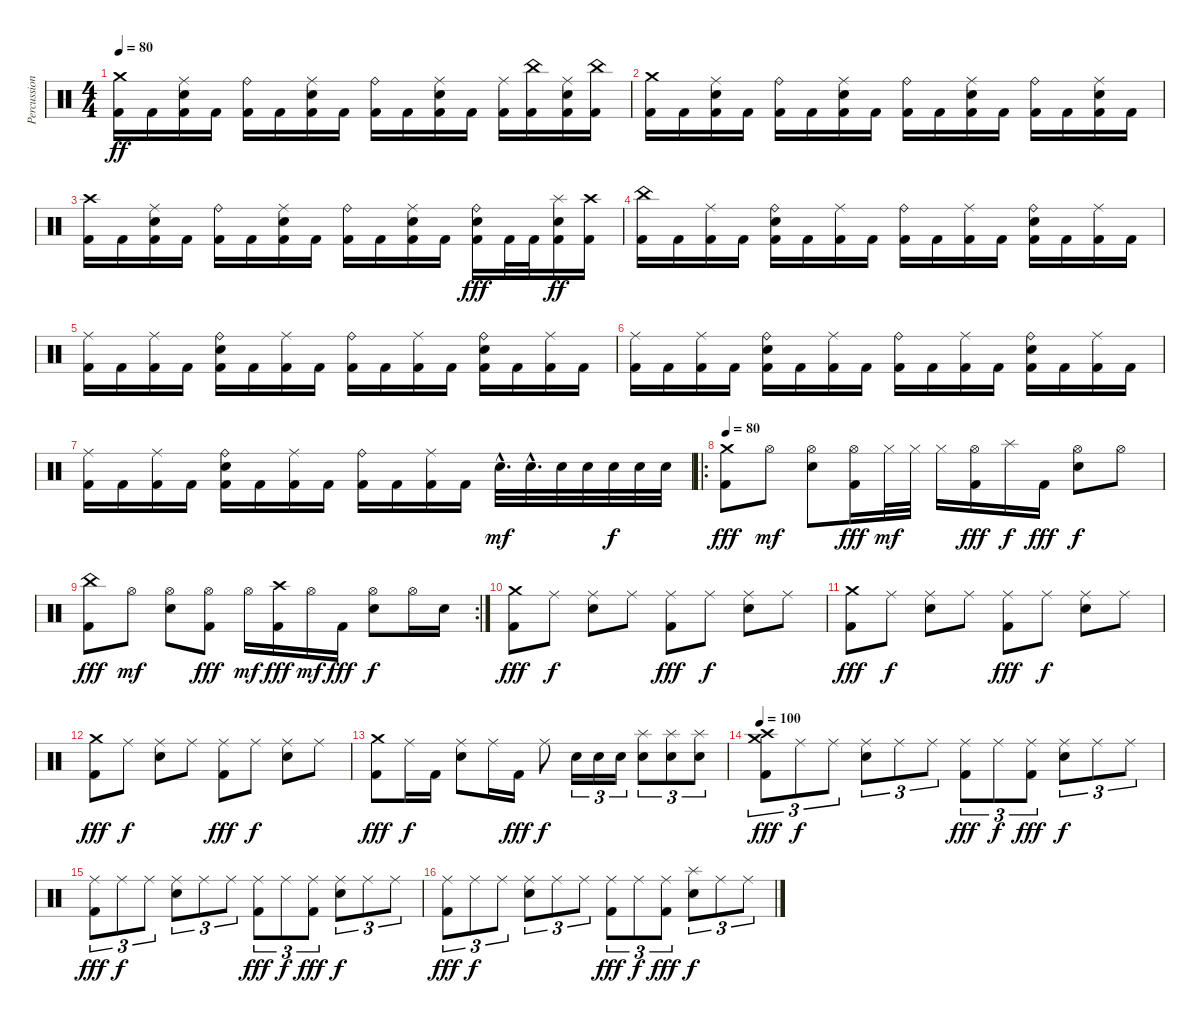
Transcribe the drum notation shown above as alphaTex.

\track ("Percussion" "Percussion") {instrument percussion}
\staff {score}
\articulation defaults
\ts (4 4)
\tempo 80
\clef neutral
\ks c
("Crash medium (hit)" "Kick (hit) 2").16{dy ff} "Kick (hit) 2".16 ("Ride (middle)" "Electric Snare (hit)" "Kick (hit) 2").16 "Kick (hit) 2".16 ("Ride (bell)" "Kick (hit) 2").16 "Kick (hit) 2".16 ("Ride (middle)" "Electric Snare (hit)" "Kick (hit) 2").16 "Kick (hit) 2".16 ("Ride (bell)" "Kick (hit) 2").16 "Kick (hit) 2".16 ("Ride (middle)" "Electric Snare (hit)" "Kick (hit) 2").16 "Kick (hit) 2".16 ("Ride (middle)" "Kick (hit) 2").16 ("China (hit)" "Kick (hit) 2").16 ("Ride (middle)" "Electric Snare (hit)" "Kick (hit) 2").16 ("China (hit)" "Kick (hit) 2").16 |
("Crash medium (hit)" "Kick (hit) 2").16 "Kick (hit) 2".16 ("Ride (middle)" "Electric Snare (hit)" "Kick (hit) 2").16 "Kick (hit) 2".16 ("Ride (bell)" "Kick (hit) 2").16 "Kick (hit) 2".16 ("Ride (middle)" "Electric Snare (hit)" "Kick (hit) 2").16 "Kick (hit) 2".16 ("Ride (bell)" "Kick (hit) 2").16 "Kick (hit) 2".16 ("Ride (middle)" "Electric Snare (hit)" "Kick (hit) 2").16 "Kick (hit) 2".16 ("Ride (bell)" "Kick (hit) 2").16 "Kick (hit) 2".16 ("Ride (middle)" "Electric Snare (hit)" "Kick (hit) 2").16 "Kick (hit) 2".16 |
("Crash high (hit)" "Kick (hit) 2").16 "Kick (hit) 2".16 ("Ride (middle)" "Electric Snare (hit)" "Kick (hit) 2").16 "Kick (hit) 2".16 ("Ride (bell)" "Kick (hit) 2").16 "Kick (hit) 2".16 ("Ride (middle)" "Electric Snare (hit)" "Kick (hit) 2").16 "Kick (hit) 2".16 ("Ride (bell)" "Kick (hit) 2").16 "Kick (hit) 2".16 ("Ride (middle)" "Electric Snare (hit)" "Kick (hit) 2").16 "Kick (hit) 2".16 ("Ride (bell)" "Electric Snare (hit)" "Kick (hit) 2").16{dy fff} "Kick (hit) 2".32 "Kick (hit) 2".32 ("Splash (hit)" "Electric Snare (hit)" "Kick (hit) 2").16{dy ff} ("Crash high (hit)" "Kick (hit) 2").16 |
("China (hit)" "Kick (hit) 2").16 "Kick (hit) 2".16 ("Ride (middle)" "Kick (hit) 2").16 "Kick (hit) 2".16 ("Ride (bell)" "Electric Snare (hit)" "Kick (hit) 2").16 "Kick (hit) 2".16 ("Ride (middle)" "Kick (hit) 2").16 "Kick (hit) 2".16 ("Ride (bell)" "Kick (hit) 2").16 "Kick (hit) 2".16 ("Ride (middle)" "Kick (hit) 2").16 "Kick (hit) 2".16 ("Ride (bell)" "Electric Snare (hit)" "Kick (hit) 2").16 "Kick (hit) 2".16 ("Ride (middle)" "Kick (hit) 2").16 "Kick (hit) 2".16 |
("Ride (middle)" "Kick (hit) 2").16 "Kick (hit) 2".16 ("Ride (middle)" "Kick (hit) 2").16 "Kick (hit) 2".16 ("Ride (bell)" "Electric Snare (hit)" "Kick (hit) 2").16 "Kick (hit) 2".16 ("Ride (middle)" "Kick (hit) 2").16 "Kick (hit) 2".16 ("Ride (bell)" "Kick (hit) 2").16 "Kick (hit) 2".16 ("Ride (middle)" "Kick (hit) 2").16 "Kick (hit) 2".16 ("Ride (bell)" "Electric Snare (hit)" "Kick (hit) 2").16 "Kick (hit) 2".16 ("Ride (middle)" "Kick (hit) 2").16 "Kick (hit) 2".16 |
("Ride (middle)" "Kick (hit) 2").16 "Kick (hit) 2".16 ("Ride (middle)" "Kick (hit) 2").16 "Kick (hit) 2".16 ("Ride (bell)" "Electric Snare (hit)" "Kick (hit) 2").16 "Kick (hit) 2".16 ("Ride (middle)" "Kick (hit) 2").16 "Kick (hit) 2".16 ("Ride (bell)" "Kick (hit) 2").16 "Kick (hit) 2".16 ("Ride (middle)" "Kick (hit) 2").16 "Kick (hit) 2".16 ("Ride (bell)" "Electric Snare (hit)" "Kick (hit) 2").16 "Kick (hit) 2".16 ("Ride (middle)" "Kick (hit) 2").16 "Kick (hit) 2".16 |
("Ride (middle)" "Kick (hit) 2").16 "Kick (hit) 2".16 ("Ride (middle)" "Kick (hit) 2").16 "Kick (hit) 2".16 ("Ride (bell)" "Electric Snare (hit)" "Kick (hit) 2").16 "Kick (hit) 2".16 ("Ride (middle)" "Kick (hit) 2").16 "Kick (hit) 2".16 ("Ride (bell)" "Kick (hit) 2").16 "Kick (hit) 2".16 ("Ride (middle)" "Kick (hit) 2").16 "Kick (hit) 2".16 "Electric Snare (hit)"{hac}.32{d dy mf} "Electric Snare (hit)"{hac}.32{d} "Electric Snare (hit)".32 "Electric Snare (hit)".32 "Electric Snare (hit)".32{dy f} "Electric Snare (hit)".32 "Electric Snare (hit)".32 |
\ro
\tempo 80
("Crash medium (hit)" "Kick (hit) 2").8{dy fff} "Hi-Hat (open)".8{dy mf} ("Hi-Hat (open)" "Electric Snare (hit)").8 ("Hi-Hat (open)" "Kick (hit) 2").16{dy fff} "Hi-Hat (closed)".32{dy mf} "Hi-Hat (closed)".32 "Hi-Hat (closed)".16 ("Hi-Hat (open)" "Kick (hit) 2").16{dy fff} "Splash (hit)".16{dy f} "Kick (hit) 2".16{dy fff} ("Hi-Hat (open)" "Electric Snare (hit)").8{dy f} "Hi-Hat (open)".8 |
\rc 2
("China (hit)" "Kick (hit) 2").8{dy fff} "Hi-Hat (open)".8{dy mf} ("Hi-Hat (open)" "Electric Snare (hit)").8 ("Hi-Hat (open)" "Kick (hit) 2").8{dy fff} "Hi-Hat (open)".16{dy mf} ("Crash high (hit)" "Kick (hit) 2").16{dy fff} "Hi-Hat (open)".16{dy mf} "Kick (hit) 2".16{dy fff} ("Hi-Hat (open)" "Electric Snare (hit)").8{dy f} "Hi-Hat (open)".16 "Electric Snare (hit)".16 |
("Crash medium (hit)" "Kick (hit) 2").8{dy fff} "Ride (middle)".8{dy f} ("Ride (middle)" "Electric Snare (hit)").8 "Ride (middle)".8 ("Ride (middle)" "Kick (hit) 2").8{dy fff} "Ride (middle)".8{dy f} ("Ride (middle)" "Electric Snare (hit)").8 "Ride (middle)".8 |
("Crash medium (hit)" "Kick (hit) 2").8{dy fff} "Ride (middle)".8{dy f} ("Ride (middle)" "Electric Snare (hit)").8 "Ride (middle)".8 ("Ride (middle)" "Kick (hit) 2").8{dy fff} "Ride (middle)".8{dy f} ("Ride (middle)" "Electric Snare (hit)").8 "Ride (middle)".8 |
("Crash medium (hit)" "Kick (hit) 2").8{dy fff} "Ride (middle)".8{dy f} ("Ride (middle)" "Electric Snare (hit)").8 "Ride (middle)".8 ("Ride (middle)" "Kick (hit) 2").8{dy fff} "Ride (middle)".8{dy f} ("Ride (middle)" "Electric Snare (hit)").8 "Ride (middle)".8 |
("Crash medium (hit)" "Kick (hit) 2").8{dy fff} "Ride (middle)".16{dy f} "Kick (hit) 2".16 ("Ride (middle)" "Electric Snare (hit)").8 "Ride (middle)".16 "Kick (hit) 2".16{dy fff} "Ride (middle)".8{dy f} "Electric Snare (hit)".16{tu (3 2)} "Electric Snare (hit)".16{tu (3 2)} "Electric Snare (hit)".16{tu (3 2)} ("Splash (hit)" "Electric Snare (hit)").8{tu (3 2)} ("Splash (hit)" "Electric Snare (hit)").8{tu (3 2)} ("Splash (hit)" "Electric Snare (hit)").8{tu (3 2)} |
\tempo 100
("Crash medium (hit)" "Crash high (hit)" "Kick (hit) 2").8{tu (3 2) dy fff} "Ride (middle)".8{tu (3 2) dy f} "Ride (middle)".8{tu (3 2)} ("Ride (middle)" "Electric Snare (hit)").8{tu (3 2)} "Ride (middle)".8{tu (3 2)} "Ride (middle)".8{tu (3 2)} ("Ride (middle)" "Kick (hit) 2").8{tu (3 2) dy fff} "Ride (middle)".8{tu (3 2) dy f} ("Ride (middle)" "Kick (hit) 2").8{tu (3 2) dy fff} ("Ride (middle)" "Electric Snare (hit)").8{tu (3 2) dy f} "Ride (middle)".8{tu (3 2)} "Ride (middle)".8{tu (3 2)} |
("Ride (middle)" "Kick (hit) 2").8{tu (3 2) dy fff} "Ride (middle)".8{tu (3 2) dy f} "Ride (middle)".8{tu (3 2)} ("Ride (middle)" "Electric Snare (hit)").8{tu (3 2)} "Ride (middle)".8{tu (3 2)} "Ride (middle)".8{tu (3 2)} ("Ride (middle)" "Kick (hit) 2").8{tu (3 2) dy fff} "Ride (middle)".8{tu (3 2) dy f} ("Ride (middle)" "Kick (hit) 2").8{tu (3 2) dy fff} ("Ride (middle)" "Electric Snare (hit)").8{tu (3 2) dy f} "Ride (middle)".8{tu (3 2)} "Ride (middle)".8{tu (3 2)} |
("Ride (middle)" "Kick (hit) 2").8{tu (3 2) dy fff} "Ride (middle)".8{tu (3 2) dy f} "Ride (middle)".8{tu (3 2)} ("Ride (middle)" "Electric Snare (hit)").8{tu (3 2)} "Ride (middle)".8{tu (3 2)} "Ride (middle)".8{tu (3 2)} ("Ride (middle)" "Kick (hit) 2").8{tu (3 2) dy fff} "Ride (middle)".8{tu (3 2) dy f} ("Ride (middle)" "Kick (hit) 2").8{tu (3 2) dy fff} ("Splash (hit)" "Electric Snare (hit)").8{tu (3 2) dy f} "Ride (middle)".8{tu (3 2)} "Ride (middle)".8{tu (3 2)}
